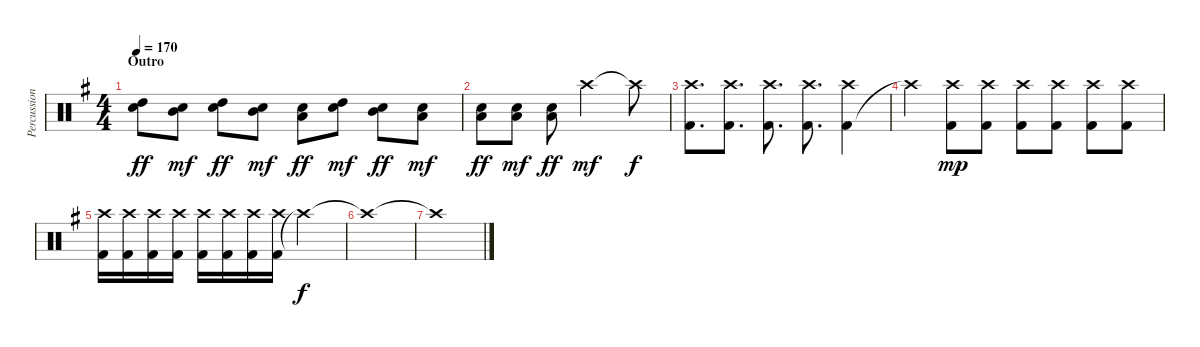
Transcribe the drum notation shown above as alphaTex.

\track ("Percussion" "Percussion") {instrument percussion}
\staff {score}
\articulation defaults
\ts (4 4)
\section ("" "Outro")
\tempo 170
\clef neutral
\ks g
("Electric Snare (hit)" "High Tom (hit)").8{dy ff} ("Electric Snare (hit)" "Mid Tom (hit)").8{dy mf} ("Electric Snare (hit)" "High Tom (hit)").8{dy ff} ("Electric Snare (hit)" "Mid Tom (hit)").8{dy mf} ("Electric Snare (hit)" "Low Tom (hit)").8{dy ff} ("Electric Snare (hit)" "High Tom (hit)").8{dy mf} ("Electric Snare (hit)" "Mid Tom (hit)").8{dy ff} ("Electric Snare (hit)" "Low Tom (hit)").8{dy mf} |
("Electric Snare (hit)" "Low Tom (hit)").8{dy ff} ("Electric Snare (hit)" "Low Tom (hit)").8{dy mf} ("Electric Snare (hit)" "Low Tom (hit)").8{dy ff} "Crash high (hit)".2{dy mf} "Crash high (hit)"{t}.8{dy f} |
("Kick (hit) 2" "Crash high (hit)").8{d} ("Kick (hit) 2" "Crash high (hit)").8{d} ("Kick (hit) 2" "Crash high (hit)").8{d} ("Kick (hit) 2" "Crash high (hit)").8{d} ("Kick (hit) 2" "Crash high (hit)").4 |
"Crash high (hit)"{t}.4 ("Kick (hit) 2" "Crash high (hit)").8{dy mp} ("Kick (hit) 2" "Crash high (hit)").8 ("Kick (hit) 2" "Crash high (hit)").8 ("Kick (hit) 2" "Crash high (hit)").8 ("Kick (hit) 2" "Crash high (hit)").8 ("Kick (hit) 2" "Crash high (hit)").8 |
("Kick (hit) 2" "Crash high (hit)").16 ("Kick (hit) 2" "Crash high (hit)").16 ("Kick (hit) 2" "Crash high (hit)").16 ("Kick (hit) 2" "Crash high (hit)").16 ("Kick (hit) 2" "Crash high (hit)").16 ("Kick (hit) 2" "Crash high (hit)").16 ("Kick (hit) 2" "Crash high (hit)").16 ("Kick (hit) 2" "Crash high (hit)").16 "Crash high (hit)"{t}.2{dy f} |
"Crash high (hit)"{t}.1 |
"Crash high (hit)"{t}.1
